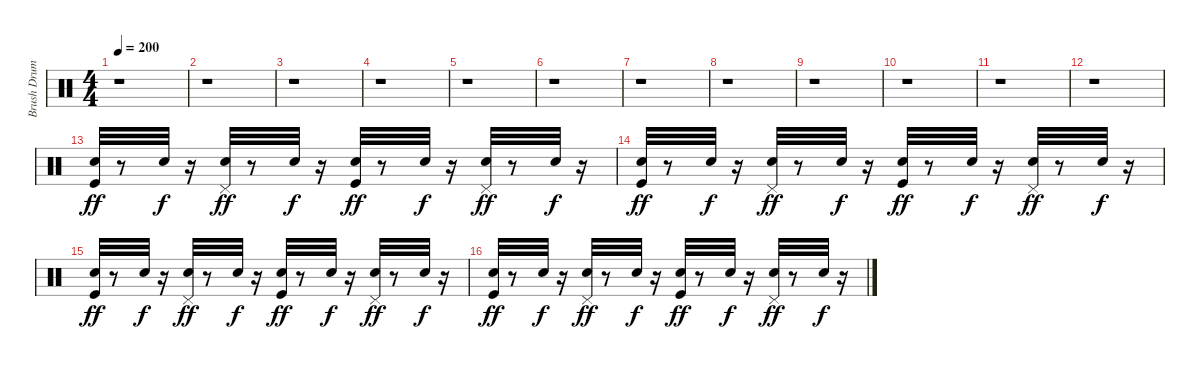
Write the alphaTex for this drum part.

\track ("Brush Drums" "Brush Drum") {instrument percussion}
\staff {score}
\articulation defaults
\ts (4 4)
\tempo 200
\clef neutral
\ks c
r.1{dy ff} |
r.1 |
r.1 |
r.1 |
r.1 |
r.1 |
r.1 |
r.1 |
r.1 |
r.1 |
r.1 |
r.1 |
("Kick (hit)" "Snare (hit) 2").32 r.8 "Snare (hit) 2".32{dy f} r.16 ("Pedal Hi-Hat (hit)" "Hand Clap (hit)").32{dy ff} r.8 "Snare (hit) 2".32{dy f} r.16 ("Kick (hit)" "Snare (hit) 2").32{dy ff} r.8 "Snare (hit) 2".32{dy f} r.16 ("Pedal Hi-Hat (hit)" "Hand Clap (hit)").32{dy ff} r.8 "Snare (hit) 2".32{dy f} r.16 |
("Snare (hit) 2" "Kick (hit)").32{dy ff} r.8 "Snare (hit) 2".32{dy f} r.16 ("Pedal Hi-Hat (hit)" "Hand Clap (hit)").32{dy ff} r.8 "Snare (hit) 2".32{dy f} r.16 ("Kick (hit)" "Snare (hit) 2").32{dy ff} r.8 "Snare (hit) 2".32{dy f} r.16 ("Hand Clap (hit)" "Pedal Hi-Hat (hit)").32{dy ff} r.8 "Snare (hit) 2".32{dy f} r.16 |
("Snare (hit) 2" "Kick (hit)").32{dy ff} r.8 "Snare (hit) 2".32{dy f} r.16 ("Hand Clap (hit)" "Pedal Hi-Hat (hit)").32{dy ff} r.8 "Snare (hit) 2".32{dy f} r.16 ("Kick (hit)" "Snare (hit) 2").32{dy ff} r.8 "Snare (hit) 2".32{dy f} r.16 ("Pedal Hi-Hat (hit)" "Hand Clap (hit)").32{dy ff} r.8 "Snare (hit) 2".32{dy f} r.16 |
("Kick (hit)" "Snare (hit) 2").32{dy ff} r.8 "Snare (hit) 2".32{dy f} r.16 ("Pedal Hi-Hat (hit)" "Hand Clap (hit)").32{dy ff} r.8 "Snare (hit) 2".32{dy f} r.16 ("Kick (hit)" "Snare (hit) 2").32{dy ff} r.8 "Snare (hit) 2".32{dy f} r.16 ("Pedal Hi-Hat (hit)" "Hand Clap (hit)").32{dy ff} r.8 "Snare (hit) 2".32{dy f} r.16
